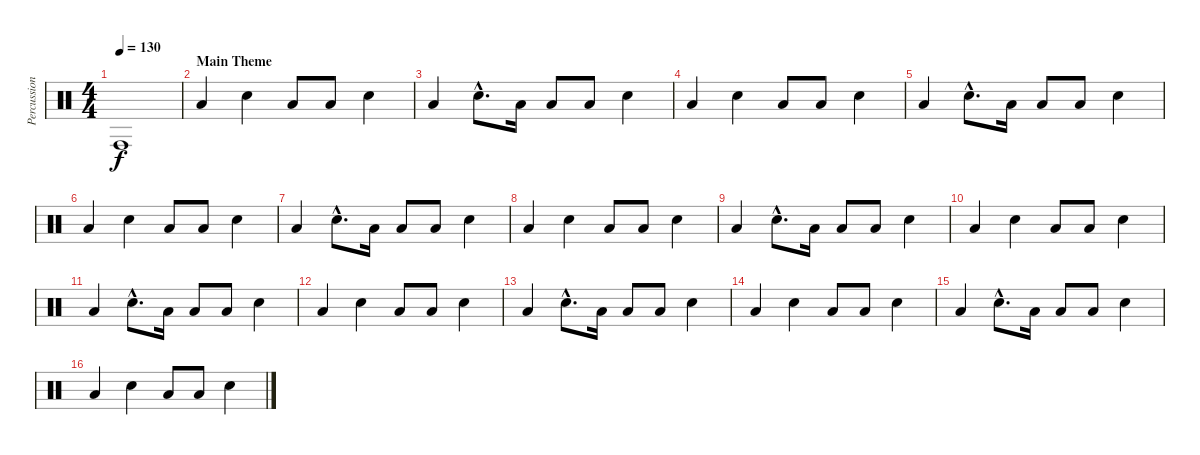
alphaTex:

\track ("Percussion" "Percussion") {instrument percussion}
\staff {score}
\articulation defaults
\ts (4 4)
\tempo 130
\clef neutral
\ks c "Conga high (hit)".1{dy f}
|
\section ("" "Main Theme")
"Low Floor Tom (hit)".4 "Electric Snare (hit)".4 "Low Floor Tom (hit)".8 "Low Floor Tom (hit)".8 "Electric Snare (hit)".4 |
"Low Floor Tom (hit)".4 "Electric Snare (hit)"{hac}.8{d} "Low Floor Tom (hit)".16 "Low Floor Tom (hit)".8 "Low Floor Tom (hit)".8 "Electric Snare (hit)".4 |
"Low Floor Tom (hit)".4 "Electric Snare (hit)".4 "Low Floor Tom (hit)".8 "Low Floor Tom (hit)".8 "Electric Snare (hit)".4 |
"Low Floor Tom (hit)".4 "Electric Snare (hit)"{hac}.8{d} "Low Floor Tom (hit)".16 "Low Floor Tom (hit)".8 "Low Floor Tom (hit)".8 "Electric Snare (hit)".4 |
"Low Floor Tom (hit)".4 "Electric Snare (hit)".4 "Low Floor Tom (hit)".8 "Low Floor Tom (hit)".8 "Electric Snare (hit)".4 |
"Low Floor Tom (hit)".4 "Electric Snare (hit)"{hac}.8{d} "Low Floor Tom (hit)".16 "Low Floor Tom (hit)".8 "Low Floor Tom (hit)".8 "Electric Snare (hit)".4 |
"Low Floor Tom (hit)".4 "Electric Snare (hit)".4 "Low Floor Tom (hit)".8 "Low Floor Tom (hit)".8 "Electric Snare (hit)".4 |
"Low Floor Tom (hit)".4 "Electric Snare (hit)"{hac}.8{d} "Low Floor Tom (hit)".16 "Low Floor Tom (hit)".8 "Low Floor Tom (hit)".8 "Electric Snare (hit)".4 |
"Low Floor Tom (hit)".4 "Electric Snare (hit)".4 "Low Floor Tom (hit)".8 "Low Floor Tom (hit)".8 "Electric Snare (hit)".4 |
"Low Floor Tom (hit)".4 "Electric Snare (hit)"{hac}.8{d} "Low Floor Tom (hit)".16 "Low Floor Tom (hit)".8 "Low Floor Tom (hit)".8 "Electric Snare (hit)".4 |
"Low Floor Tom (hit)".4 "Electric Snare (hit)".4 "Low Floor Tom (hit)".8 "Low Floor Tom (hit)".8 "Electric Snare (hit)".4 |
"Low Floor Tom (hit)".4 "Electric Snare (hit)"{hac}.8{d} "Low Floor Tom (hit)".16 "Low Floor Tom (hit)".8 "Low Floor Tom (hit)".8 "Electric Snare (hit)".4 |
"Low Floor Tom (hit)".4 "Electric Snare (hit)".4 "Low Floor Tom (hit)".8 "Low Floor Tom (hit)".8 "Electric Snare (hit)".4 |
"Low Floor Tom (hit)".4 "Electric Snare (hit)"{hac}.8{d} "Low Floor Tom (hit)".16 "Low Floor Tom (hit)".8 "Low Floor Tom (hit)".8 "Electric Snare (hit)".4 |
"Low Floor Tom (hit)".4 "Electric Snare (hit)".4 "Low Floor Tom (hit)".8 "Low Floor Tom (hit)".8 "Electric Snare (hit)".4
